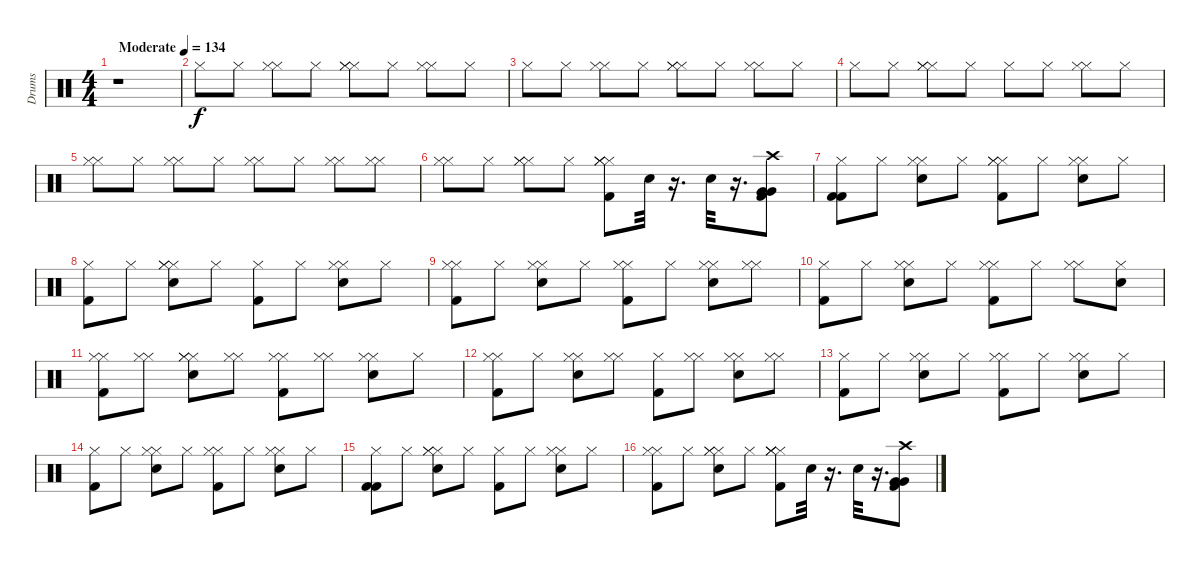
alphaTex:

\track ("Drums" "Drums") {instrument percussion}
\staff {score}
\articulation defaults
\ts (4 4)
\tempo (134 "Moderate")
\clef neutral
\ks c
r.1{dy f} |
"Hi-Hat (closed)".8 "Hi-Hat (closed)".8 ("Hi-Hat (closed)" "Hi-Hat (closed)").8 "Hi-Hat (closed)".8 ("Hi-Hat (closed)" "Hi-Hat (closed)" "Hi-Hat (closed)").8 "Hi-Hat (closed)".8 ("Hi-Hat (closed)" "Hi-Hat (closed)").8 "Hi-Hat (closed)".8 |
"Hi-Hat (closed)".8 "Hi-Hat (closed)".8 ("Hi-Hat (closed)" "Hi-Hat (closed)").8 "Hi-Hat (closed)".8 ("Hi-Hat (closed)" "Hi-Hat (closed)" "Hi-Hat (closed)").8 "Hi-Hat (closed)".8 ("Hi-Hat (closed)" "Hi-Hat (closed)").8 "Hi-Hat (closed)".8 |
"Hi-Hat (closed)".8 "Hi-Hat (closed)".8 ("Hi-Hat (closed)" "Hi-Hat (closed)" "Hi-Hat (closed)").8 "Hi-Hat (closed)".8 "Hi-Hat (closed)".8 "Hi-Hat (closed)".8 ("Hi-Hat (closed)" "Hi-Hat (closed)").8 "Hi-Hat (closed)".8 |
("Hi-Hat (closed)" "Hi-Hat (closed)").8 "Hi-Hat (closed)".8 ("Hi-Hat (closed)" "Hi-Hat (closed)").8 "Hi-Hat (closed)".8 ("Hi-Hat (closed)" "Hi-Hat (closed)").8 "Hi-Hat (closed)".8 ("Hi-Hat (closed)" "Hi-Hat (closed)").8 ("Hi-Hat (closed)" "Hi-Hat (closed)").8 |
("Hi-Hat (closed)" "Hi-Hat (closed)").8 "Hi-Hat (closed)".8 ("Hi-Hat (closed)" "Hi-Hat (closed)" "Hi-Hat (closed)").8 "Hi-Hat (closed)".8 ("Hi-Hat (closed)" "Hi-Hat (closed)" "Hi-Hat (closed)" "Hi-Hat (closed)" "Kick (hit) 2").8 "Electric Snare (hit)".32 r.16{d} "Electric Snare (hit)".32 r.16{d} ("Very Low Tom (hit)" "Very Low Tom (hit)" "Crash high (hit)" "Kick (hit) 2").8 |
("Hi-Hat (closed)" "Kick (hit) 2" "Kick (hit) 2").8 "Hi-Hat (closed)".8 ("Hi-Hat (closed)" "Hi-Hat (closed)" "Electric Snare (hit)").8 "Hi-Hat (closed)".8 ("Hi-Hat (closed)" "Hi-Hat (closed)" "Hi-Hat (closed)" "Kick (hit) 2").8 "Hi-Hat (closed)".8 ("Hi-Hat (closed)" "Hi-Hat (closed)" "Electric Snare (hit)").8 "Hi-Hat (closed)".8 |
("Hi-Hat (closed)" "Kick (hit) 2").8 "Hi-Hat (closed)".8 ("Hi-Hat (closed)" "Hi-Hat (closed)" "Hi-Hat (closed)" "Electric Snare (hit)").8 "Hi-Hat (closed)".8 ("Hi-Hat (closed)" "Kick (hit) 2").8 "Hi-Hat (closed)".8 ("Hi-Hat (closed)" "Hi-Hat (closed)" "Electric Snare (hit)").8 "Hi-Hat (closed)".8 |
("Hi-Hat (closed)" "Hi-Hat (closed)" "Kick (hit) 2").8 "Hi-Hat (closed)".8 ("Hi-Hat (closed)" "Hi-Hat (closed)" "Electric Snare (hit)").8 "Hi-Hat (closed)".8 ("Hi-Hat (closed)" "Hi-Hat (closed)" "Kick (hit) 2").8 "Hi-Hat (closed)".8 ("Hi-Hat (closed)" "Hi-Hat (closed)" "Electric Snare (hit)").8 ("Hi-Hat (closed)" "Hi-Hat (closed)").8 |
("Hi-Hat (closed)" "Kick (hit) 2").8 "Hi-Hat (closed)".8 ("Hi-Hat (closed)" "Hi-Hat (closed)" "Electric Snare (hit)").8 "Hi-Hat (closed)".8 ("Hi-Hat (closed)" "Hi-Hat (closed)" "Kick (hit) 2").8 "Hi-Hat (closed)".8 ("Hi-Hat (closed)" "Hi-Hat (closed)").8 ("Hi-Hat (closed)" "Electric Snare (hit)").8 |
("Hi-Hat (closed)" "Hi-Hat (closed)" "Kick (hit) 2").8 ("Hi-Hat (closed)" "Hi-Hat (closed)").8 ("Hi-Hat (closed)" "Hi-Hat (closed)" "Hi-Hat (closed)" "Electric Snare (hit)").8 ("Hi-Hat (closed)" "Hi-Hat (closed)").8 ("Hi-Hat (closed)" "Hi-Hat (closed)" "Kick (hit) 2").8 ("Hi-Hat (closed)" "Hi-Hat (closed)").8 ("Hi-Hat (closed)" "Hi-Hat (closed)" "Electric Snare (hit)").8 "Hi-Hat (closed)".8 |
("Hi-Hat (closed)" "Hi-Hat (closed)" "Kick (hit) 2").8 "Hi-Hat (closed)".8 ("Hi-Hat (closed)" "Hi-Hat (closed)" "Electric Snare (hit)").8 ("Hi-Hat (closed)" "Hi-Hat (closed)").8 ("Hi-Hat (closed)" "Kick (hit) 2").8 ("Hi-Hat (closed)" "Hi-Hat (closed)").8 ("Hi-Hat (closed)" "Hi-Hat (closed)" "Electric Snare (hit)").8 ("Hi-Hat (closed)" "Hi-Hat (closed)").8 |
("Hi-Hat (closed)" "Kick (hit) 2").8 "Hi-Hat (closed)".8 ("Hi-Hat (closed)" "Hi-Hat (closed)" "Electric Snare (hit)").8 "Hi-Hat (closed)".8 ("Hi-Hat (closed)" "Hi-Hat (closed)" "Kick (hit) 2").8 "Hi-Hat (closed)".8 ("Hi-Hat (closed)" "Hi-Hat (closed)" "Electric Snare (hit)").8 "Hi-Hat (closed)".8 |
("Hi-Hat (closed)" "Kick (hit) 2").8 "Hi-Hat (closed)".8 ("Hi-Hat (closed)" "Hi-Hat (closed)" "Electric Snare (hit)").8 "Hi-Hat (closed)".8 ("Hi-Hat (closed)" "Hi-Hat (closed)" "Kick (hit) 2").8 "Hi-Hat (closed)".8 ("Hi-Hat (closed)" "Hi-Hat (closed)" "Electric Snare (hit)").8 "Hi-Hat (closed)".8 |
("Hi-Hat (closed)" "Kick (hit) 2" "Kick (hit) 2").8 "Hi-Hat (closed)".8 ("Hi-Hat (closed)" "Hi-Hat (closed)" "Hi-Hat (closed)" "Electric Snare (hit)").8 "Hi-Hat (closed)".8 ("Hi-Hat (closed)" "Kick (hit) 2").8 "Hi-Hat (closed)".8 ("Hi-Hat (closed)" "Hi-Hat (closed)" "Electric Snare (hit)").8 "Hi-Hat (closed)".8 |
("Hi-Hat (closed)" "Hi-Hat (closed)" "Kick (hit) 2").8 "Hi-Hat (closed)".8 ("Hi-Hat (closed)" "Hi-Hat (closed)" "Hi-Hat (closed)" "Electric Snare (hit)").8 "Hi-Hat (closed)".8 ("Hi-Hat (closed)" "Hi-Hat (closed)" "Hi-Hat (closed)" "Hi-Hat (closed)" "Kick (hit) 2").8 "Electric Snare (hit)".32 r.16{d} "Electric Snare (hit)".32 r.16{d} ("Very Low Tom (hit)" "Very Low Tom (hit)" "Crash high (hit)" "Kick (hit) 2").8
